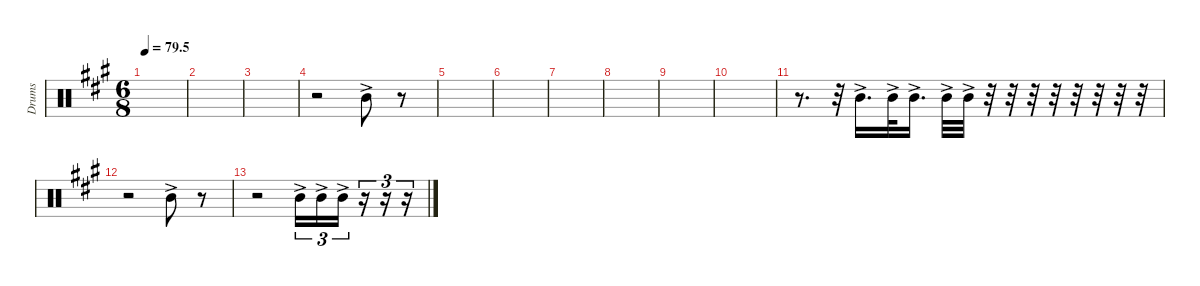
\defaultSystemsLayout 4
\hideDynamics
\bracketExtendMode nobrackets
\otherSystemsTrackNameOrientation horizontal
\track ("Tom 02" "Drums") {instrument percussion}
\staff {score}
\articulation defaults
\ts (6 8)
\tempo
79.5
\accidentals auto
\clef neutral
\ottava regular
\simile none
\scale
0.333333
\ks a
|
\scale
0.333333 |
\scale
0.333333 |
\scale
0.333333 r.2 "Mid Tom (hit)"{ac acc forcenatural}.8 r.8 |
\scale
0.333333 |
\scale
0.333333 |
\scale
0.333333 |
\scale
0.333333 |
\scale
0.333333 |
\scale
0.333333 |
\scale
0.333333 r.8{d} r.32 "Mid Tom (hit)"{ac acc forcenatural}.16{d} "Mid Tom (hit)"{ac acc forcenatural}.32 "Mid Tom (hit)"{ac acc forcenatural}.16{d} "Mid Tom (hit)"{ac acc forcenatural}.32 "Mid Tom (hit)"{ac acc forcenatural}.32 r.32 r.32 r.32 r.32 r.32 r.32 r.32 r.32 |
\scale
0.333333 r.2 "Mid Tom (hit)"{ac acc forcenatural}.8 r.8 |
\scale
0.333333 r.2 "Mid Tom (hit)"{ac acc forcenatural}.16{tu (3 2)} "Mid Tom (hit)"{ac acc forcenatural}.16{tu (3 2)} "Mid Tom (hit)"{ac acc forcenatural}.16{tu (3 2)} r.16{tu (3 2)} r.16{tu (3 2)} r.16{tu (3 2)} |
\scale
0.333333 |
\scale
0.333333 |
\scale
0.333333
